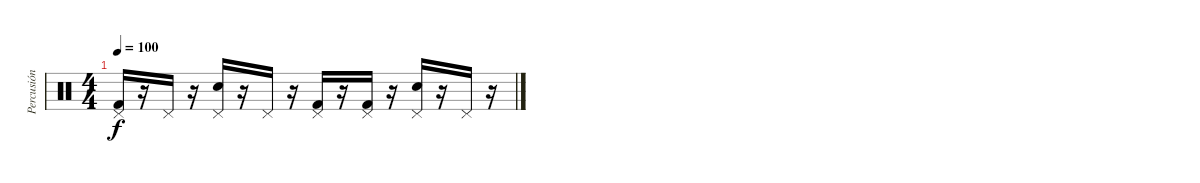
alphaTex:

\track ("Percusión" "Percusión") {instrument percussion}
\staff {score}
\articulation defaults
\ts (4 4)
\tempo 100
\clef neutral
\ks c
("Pedal Hi-Hat (hit)" "Kick (hit) 2").16{dy f} r.16 "Pedal Hi-Hat (hit)".16 r.16 ("Pedal Hi-Hat (hit)" "Snare (hit) 2").16 r.16 "Pedal Hi-Hat (hit)".16 r.16 ("Pedal Hi-Hat (hit)" "Kick (hit) 2").16 r.16 ("Pedal Hi-Hat (hit)" "Kick (hit) 2").16 r.16 ("Pedal Hi-Hat (hit)" "Snare (hit) 2").16 r.16 "Pedal Hi-Hat (hit)".16 r.16
